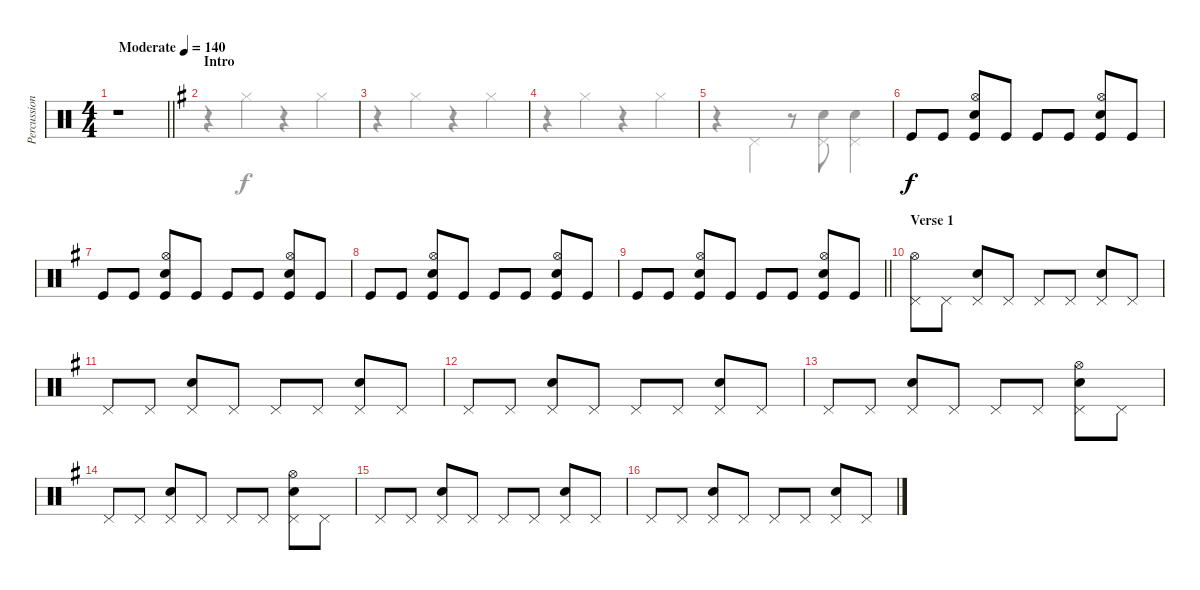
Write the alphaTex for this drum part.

\track ("Percussion" "Percussion") {instrument percussion}
\staff {score}
\articulation defaults
\voice
\ts (4 4)
\tempo (140 "Moderate")
\clef neutral
\barLineRight lightlight
\ks c
r.1{dy f} |
\section ("" "Intro")
\ks g
|
|
|
|
"Kick (hit)".8 "Kick (hit)".8 ("Hi-Hat (open)" "Snare (hit) 2" "Kick (hit)").8 "Kick (hit)".8 "Kick (hit)".8 "Kick (hit)".8 ("Hi-Hat (open)" "Snare (hit) 2" "Kick (hit)").8 "Kick (hit)".8 |
"Kick (hit)".8 "Kick (hit)".8 ("Hi-Hat (open)" "Snare (hit) 2" "Kick (hit)").8 "Kick (hit)".8 "Kick (hit)".8 "Kick (hit)".8 ("Hi-Hat (open)" "Snare (hit) 2" "Kick (hit)").8 "Kick (hit)".8 |
"Kick (hit)".8 "Kick (hit)".8 ("Hi-Hat (open)" "Snare (hit) 2" "Kick (hit)").8 "Kick (hit)".8 "Kick (hit)".8 "Kick (hit)".8 ("Hi-Hat (open)" "Snare (hit) 2" "Kick (hit)").8 "Kick (hit)".8 |
\barLineRight lightlight "Kick (hit)".8 "Kick (hit)".8
("Hi-Hat (open)" "Snare (hit) 2" "Kick (hit)").8 "Kick (hit)".8 "Kick (hit)".8 "Kick (hit)".8 ("Hi-Hat (open)" "Snare (hit) 2" "Kick (hit)").8 "Kick (hit)".8 |
\section ("" "Verse 1")
("Pedal Hi-Hat (hit)" "Hi-Hat (open)").8 "Pedal Hi-Hat (hit)".8 ("Pedal Hi-Hat (hit)" "Snare (hit) 2").8 "Pedal Hi-Hat (hit)".8 "Pedal Hi-Hat (hit)".8 "Pedal Hi-Hat (hit)".8 ("Pedal Hi-Hat (hit)" "Snare (hit) 2").8 "Pedal Hi-Hat (hit)".8 |
"Pedal Hi-Hat (hit)".8 "Pedal Hi-Hat (hit)".8 ("Pedal Hi-Hat (hit)" "Snare (hit) 2").8 "Pedal Hi-Hat (hit)".8 "Pedal Hi-Hat (hit)".8 "Pedal Hi-Hat (hit)".8 ("Pedal Hi-Hat (hit)" "Snare (hit) 2").8 "Pedal Hi-Hat (hit)".8 |
"Pedal Hi-Hat (hit)".8 "Pedal Hi-Hat (hit)".8 ("Pedal Hi-Hat (hit)" "Snare (hit) 2").8 "Pedal Hi-Hat (hit)".8 "Pedal Hi-Hat (hit)".8 "Pedal Hi-Hat (hit)".8 ("Pedal Hi-Hat (hit)" "Snare (hit) 2").8 "Pedal Hi-Hat (hit)".8 |
"Pedal Hi-Hat (hit)".8 "Pedal Hi-Hat (hit)".8 ("Pedal Hi-Hat (hit)" "Snare (hit) 2").8 "Pedal Hi-Hat (hit)".8 "Pedal Hi-Hat (hit)".8 "Pedal Hi-Hat (hit)".8 ("Pedal Hi-Hat (hit)" "Hi-Hat (open)" "Snare (hit) 2").8 "Pedal Hi-Hat (hit)".8 |
"Pedal Hi-Hat (hit)".8 "Pedal Hi-Hat (hit)".8 ("Pedal Hi-Hat (hit)" "Snare (hit) 2").8 "Pedal Hi-Hat (hit)".8 "Pedal Hi-Hat (hit)".8 "Pedal Hi-Hat (hit)".8 ("Pedal Hi-Hat (hit)" "Hi-Hat (open)" "Snare (hit) 2").8 "Pedal Hi-Hat (hit)".8 |
"Pedal Hi-Hat (hit)".8 "Pedal Hi-Hat (hit)".8 ("Pedal Hi-Hat (hit)" "Snare (hit) 2").8 "Pedal Hi-Hat (hit)".8 "Pedal Hi-Hat (hit)".8 "Pedal Hi-Hat (hit)".8 ("Pedal Hi-Hat (hit)" "Snare (hit) 2").8 "Pedal Hi-Hat (hit)".8 |
"Pedal Hi-Hat (hit)".8 "Pedal Hi-Hat (hit)".8 ("Pedal Hi-Hat (hit)" "Snare (hit) 2").8 "Pedal Hi-Hat (hit)".8 "Pedal Hi-Hat (hit)".8 "Pedal Hi-Hat (hit)".8 ("Pedal Hi-Hat (hit)" "Snare (hit) 2").8 "Pedal Hi-Hat (hit)".8
\voice
\clef neutral
\ottava regular
\simile none
\barLineRight lightlight
\ks c
|
\ks g
r.4 "Hi-Hat (closed)".4 r.4 "Hi-Hat (closed)".4 |
r.4 "Hi-Hat (closed)".4 r.4 "Hi-Hat (closed)".4 |
r.4 "Hi-Hat (closed)".4 r.4 "Hi-Hat (closed)".4 |
r.4 "Pedal Hi-Hat (hit)".4 r.8 ("Pedal Hi-Hat (hit)" "Snare (hit) 2").8 ("Pedal Hi-Hat (hit)" "Snare (hit) 2").4 |
|
|
|
\barLineRight lightlight
|
|
|
|
|
|
|
